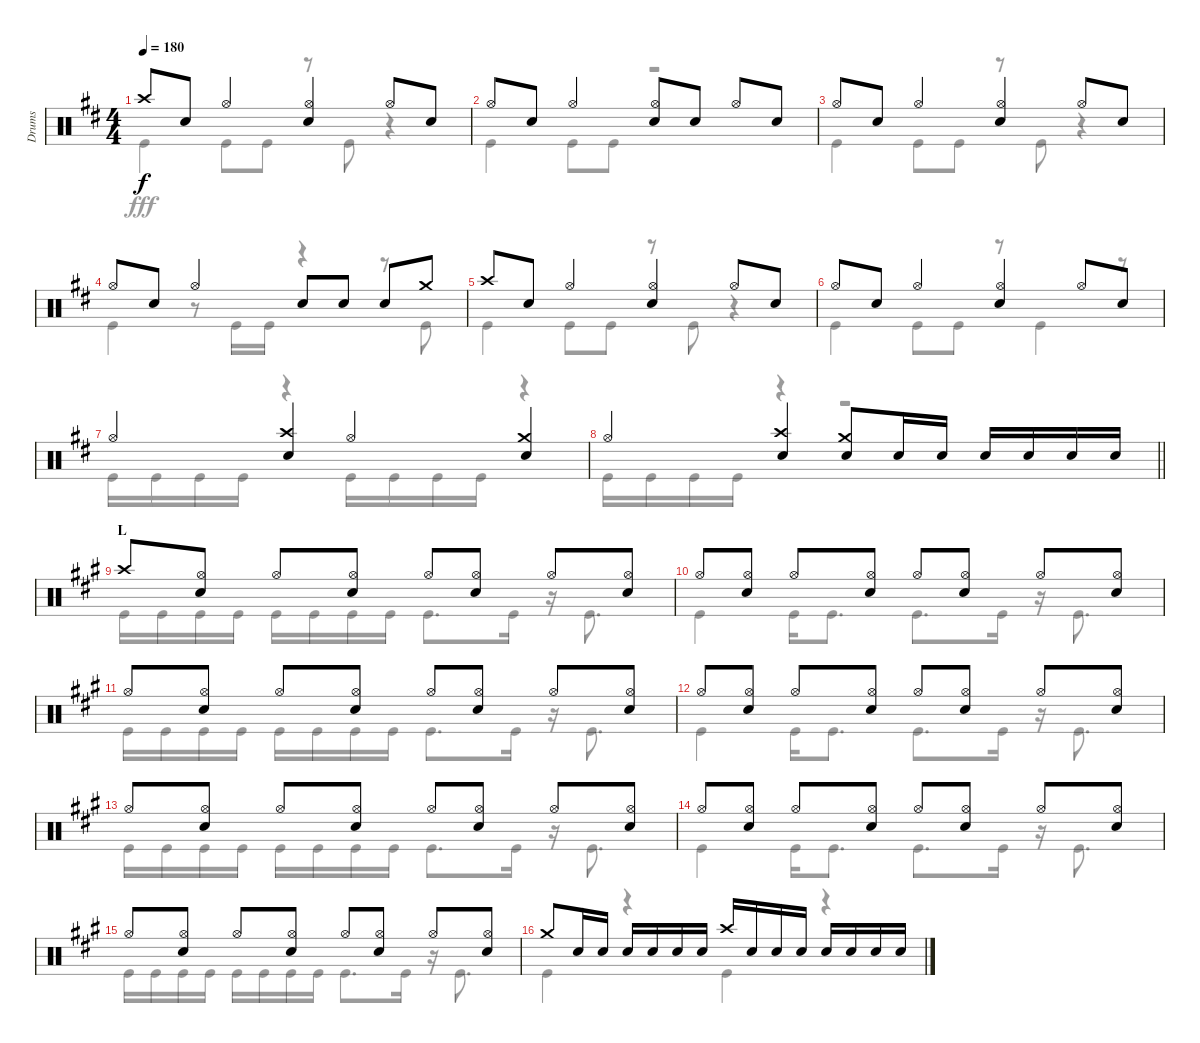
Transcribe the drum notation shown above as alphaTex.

\track ("Drums" "Drums") {instrument percussion}
\staff {score}
\articulation defaults
\voice
\ts (4 4)
\tempo 180
\clef neutral
\ks d "Crash high (hit)".8{dy f} "Snare (hit) 2".8 "Hi-Hat (open)".4
("Hi-Hat (open)" "Snare (hit) 2").4 "Hi-Hat (open)".8 "Snare (hit) 2".8 |
"Hi-Hat (open)".8 "Snare (hit) 2".8 "Hi-Hat (open)".4 ("Hi-Hat (open)" "Snare (hit) 2").8 "Snare (hit) 2".8 "Hi-Hat (open)".8 "Snare (hit) 2".8 |
"Hi-Hat (open)".8 "Snare (hit) 2".8 "Hi-Hat (open)".4 ("Hi-Hat (open)" "Snare (hit) 2").4 "Hi-Hat (open)".8 "Snare (hit) 2".8 |
"Hi-Hat (open)".8 "Snare (hit) 2".8 "Hi-Hat (open)".4 "Snare (hit) 2".8 "Snare (hit) 2".8 "Snare (hit) 2".8 "Crash medium (hit)".8 |
"Crash high (hit)".8 "Snare (hit) 2".8 "Hi-Hat (open)".4 ("Hi-Hat (open)" "Snare (hit) 2").4 "Hi-Hat (open)".8 "Snare (hit) 2".8 |
"Hi-Hat (open)".8 "Snare (hit) 2".8 "Hi-Hat (open)".4 ("Hi-Hat (open)" "Snare (hit) 2").4 "Hi-Hat (open)".8 "Snare (hit) 2".8 |
"Hi-Hat (open)".4 ("Crash high (hit)" "Snare (hit) 2").4 "Hi-Hat (open)".4 ("Crash medium (hit)" "Snare (hit) 2").4 |
\barLineRight lightlight "Hi-Hat (open)".4
("Crash high (hit)" "Snare (hit) 2").4 ("Crash medium (hit)" "Snare (hit) 2").8 "Snare (hit) 2".16 "Snare (hit) 2".16 "Snare (hit) 2".16 "Snare (hit) 2".16 "Snare (hit) 2".16 "Snare (hit) 2".16 |
\section ("" "L")
\ks a "Crash high (hit)".8
("Hi-Hat (open)" "Snare (hit) 2").8 "Hi-Hat (open)".8 ("Hi-Hat (open)" "Snare (hit) 2").8 "Hi-Hat (open)".8 ("Hi-Hat (open)" "Snare (hit) 2").8 "Hi-Hat (open)".8 ("Hi-Hat (open)" "Snare (hit) 2").8 |
"Hi-Hat (open)".8 ("Hi-Hat (open)" "Snare (hit) 2").8 "Hi-Hat (open)".8 ("Hi-Hat (open)" "Snare (hit) 2").8 "Hi-Hat (open)".8 ("Hi-Hat (open)" "Snare (hit) 2").8 "Hi-Hat (open)".8 ("Hi-Hat (open)" "Snare (hit) 2").8 |
"Hi-Hat (open)".8 ("Hi-Hat (open)" "Snare (hit) 2").8 "Hi-Hat (open)".8 ("Hi-Hat (open)" "Snare (hit) 2").8 "Hi-Hat (open)".8 ("Hi-Hat (open)" "Snare (hit) 2").8 "Hi-Hat (open)".8 ("Hi-Hat (open)" "Snare (hit) 2").8 |
"Hi-Hat (open)".8 ("Hi-Hat (open)" "Snare (hit) 2").8 "Hi-Hat (open)".8 ("Hi-Hat (open)" "Snare (hit) 2").8 "Hi-Hat (open)".8 ("Hi-Hat (open)" "Snare (hit) 2").8 "Hi-Hat (open)".8 ("Hi-Hat (open)" "Snare (hit) 2").8 |
"Hi-Hat (open)".8 ("Hi-Hat (open)" "Snare (hit) 2").8 "Hi-Hat (open)".8 ("Hi-Hat (open)" "Snare (hit) 2").8 "Hi-Hat (open)".8 ("Hi-Hat (open)" "Snare (hit) 2").8 "Hi-Hat (open)".8 ("Hi-Hat (open)" "Snare (hit) 2").8 |
"Hi-Hat (open)".8 ("Hi-Hat (open)" "Snare (hit) 2").8 "Hi-Hat (open)".8 ("Hi-Hat (open)" "Snare (hit) 2").8 "Hi-Hat (open)".8 ("Hi-Hat (open)" "Snare (hit) 2").8 "Hi-Hat (open)".8 ("Hi-Hat (open)" "Snare (hit) 2").8 |
"Hi-Hat (open)".8 ("Hi-Hat (open)" "Snare (hit) 2").8 "Hi-Hat (open)".8 ("Hi-Hat (open)" "Snare (hit) 2").8 "Hi-Hat (open)".8 ("Hi-Hat (open)" "Snare (hit) 2").8 "Hi-Hat (open)".8 ("Hi-Hat (open)" "Snare (hit) 2").8 |
"Crash medium (hit)".8 "Snare (hit) 2".16 "Snare (hit) 2".16 "Snare (hit) 2".16 "Snare (hit) 2".16 "Snare (hit) 2".16 "Snare (hit) 2".16 "Crash high (hit)".16 "Snare (hit) 2".16 "Snare (hit) 2".16 "Snare (hit) 2".16 "Snare (hit) 2".16 "Snare (hit) 2".16 "Snare (hit) 2".16 "Snare (hit) 2".16
\voice
\clef neutral
\ottava regular
\simile none
\ks d "Kick (hit)".4{dy fff} "Kick (hit)".8 "Kick (hit)".8
r.8 "Kick (hit)".8 r.4 |
"Kick (hit)".4 "Kick (hit)".8 "Kick (hit)".8 r.2 |
"Kick (hit)".4 "Kick (hit)".8 "Kick (hit)".8 r.8 "Kick (hit)".8 r.4 |
"Kick (hit)".4 r.8 "Kick (hit)".16 "Kick (hit)".16 r.4 r.8 "Kick (hit)".8 |
"Kick (hit)".4 "Kick (hit)".8 "Kick (hit)".8 r.8 "Kick (hit)".8 r.4 |
"Kick (hit)".4 "Kick (hit)".8 "Kick (hit)".8 r.8 "Kick (hit)".4 r.8 |
"Kick (hit)".16 "Kick (hit)".16 "Kick (hit)".16 "Kick (hit)".16 r.4 "Kick (hit)".16 "Kick (hit)".16 "Kick (hit)".16 "Kick (hit)".16 r.4 |
\barLineRight lightlight "Kick (hit)".16 "Kick (hit)".16 "Kick (hit)".16 "Kick (hit)".16
r.4 r.2 |
\ks a "Kick (hit)".16 "Kick (hit)".16 "Kick (hit)".16 "Kick (hit)".16 "Kick (hit)".16 "Kick (hit)".16 "Kick (hit)".16 "Kick (hit)".16 "Kick (hit)".8{d} "Kick (hit)".16
r.16 "Kick (hit)".8{d} |
"Kick (hit)".4 "Kick (hit)".16 "Kick (hit)".8{d} "Kick (hit)".8{d} "Kick (hit)".16 r.16 "Kick (hit)".8{d} |
"Kick (hit)".16 "Kick (hit)".16 "Kick (hit)".16 "Kick (hit)".16 "Kick (hit)".16 "Kick (hit)".16 "Kick (hit)".16 "Kick (hit)".16 "Kick (hit)".8{d} "Kick (hit)".16 r.16 "Kick (hit)".8{d} |
"Kick (hit)".4 "Kick (hit)".16 "Kick (hit)".8{d} "Kick (hit)".8{d} "Kick (hit)".16 r.16 "Kick (hit)".8{d} |
"Kick (hit)".16 "Kick (hit)".16 "Kick (hit)".16 "Kick (hit)".16 "Kick (hit)".16 "Kick (hit)".16 "Kick (hit)".16 "Kick (hit)".16 "Kick (hit)".8{d} "Kick (hit)".16 r.16 "Kick (hit)".8{d} |
"Kick (hit)".4 "Kick (hit)".16 "Kick (hit)".8{d} "Kick (hit)".8{d} "Kick (hit)".16 r.16 "Kick (hit)".8{d} |
"Kick (hit)".16 "Kick (hit)".16 "Kick (hit)".16 "Kick (hit)".16 "Kick (hit)".16 "Kick (hit)".16 "Kick (hit)".16 "Kick (hit)".16 "Kick (hit)".8{d} "Kick (hit)".16 r.16 "Kick (hit)".8{d} |
"Kick (hit)".4 r.4 "Kick (hit)".4 r.4
